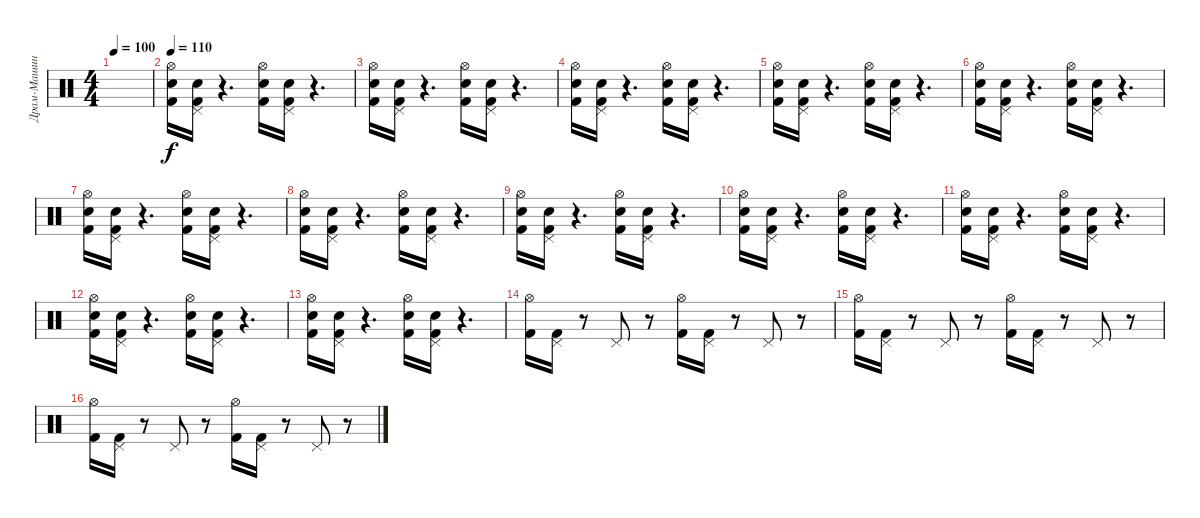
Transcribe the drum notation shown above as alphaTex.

\track ("Драм-Машина" "Драм-Машин") {instrument percussion}
\staff {score}
\articulation defaults
\ts (4 4)
\tempo 100
\clef neutral
\ks c
|
\tempo 110
("Hi-Hat (open)" "Electric Snare (hit)" "Kick (hit) 2").16 ("Pedal Hi-Hat (hit)" "Electric Snare (hit)" "Kick (hit) 2").16 r.4{d} ("Hi-Hat (open)" "Electric Snare (hit)" "Kick (hit) 2").16 ("Pedal Hi-Hat (hit)" "Electric Snare (hit)" "Kick (hit) 2").16 r.4{d} |
("Hi-Hat (open)" "Electric Snare (hit)" "Kick (hit) 2").16 ("Pedal Hi-Hat (hit)" "Electric Snare (hit)" "Kick (hit) 2").16 r.4{d} ("Hi-Hat (open)" "Electric Snare (hit)" "Kick (hit) 2").16 ("Pedal Hi-Hat (hit)" "Electric Snare (hit)" "Kick (hit) 2").16 r.4{d} |
("Hi-Hat (open)" "Electric Snare (hit)" "Kick (hit) 2").16 ("Pedal Hi-Hat (hit)" "Electric Snare (hit)" "Kick (hit) 2").16 r.4{d} ("Hi-Hat (open)" "Electric Snare (hit)" "Kick (hit) 2").16 ("Pedal Hi-Hat (hit)" "Electric Snare (hit)" "Kick (hit) 2").16 r.4{d} |
("Hi-Hat (open)" "Electric Snare (hit)" "Kick (hit) 2").16 ("Pedal Hi-Hat (hit)" "Electric Snare (hit)" "Kick (hit) 2").16 r.4{d} ("Hi-Hat (open)" "Electric Snare (hit)" "Kick (hit) 2").16 ("Pedal Hi-Hat (hit)" "Electric Snare (hit)" "Kick (hit) 2").16 r.4{d} |
("Hi-Hat (open)" "Electric Snare (hit)" "Kick (hit) 2").16 ("Pedal Hi-Hat (hit)" "Electric Snare (hit)" "Kick (hit) 2").16 r.4{d} ("Hi-Hat (open)" "Electric Snare (hit)" "Kick (hit) 2").16 ("Pedal Hi-Hat (hit)" "Electric Snare (hit)" "Kick (hit) 2").16 r.4{d} |
("Hi-Hat (open)" "Electric Snare (hit)" "Kick (hit) 2").16 ("Pedal Hi-Hat (hit)" "Electric Snare (hit)" "Kick (hit) 2").16 r.4{d} ("Hi-Hat (open)" "Electric Snare (hit)" "Kick (hit) 2").16 ("Pedal Hi-Hat (hit)" "Electric Snare (hit)" "Kick (hit) 2").16 r.4{d} |
("Hi-Hat (open)" "Electric Snare (hit)" "Kick (hit) 2").16 ("Pedal Hi-Hat (hit)" "Electric Snare (hit)" "Kick (hit) 2").16 r.4{d} ("Hi-Hat (open)" "Electric Snare (hit)" "Kick (hit) 2").16 ("Pedal Hi-Hat (hit)" "Electric Snare (hit)" "Kick (hit) 2").16 r.4{d} |
("Hi-Hat (open)" "Electric Snare (hit)" "Kick (hit) 2").16 ("Pedal Hi-Hat (hit)" "Electric Snare (hit)" "Kick (hit) 2").16 r.4{d} ("Hi-Hat (open)" "Electric Snare (hit)" "Kick (hit) 2").16 ("Pedal Hi-Hat (hit)" "Electric Snare (hit)" "Kick (hit) 2").16 r.4{d} |
("Hi-Hat (open)" "Electric Snare (hit)" "Kick (hit) 2").16 ("Pedal Hi-Hat (hit)" "Electric Snare (hit)" "Kick (hit) 2").16 r.4{d} ("Hi-Hat (open)" "Electric Snare (hit)" "Kick (hit) 2").16 ("Pedal Hi-Hat (hit)" "Electric Snare (hit)" "Kick (hit) 2").16 r.4{d} |
("Hi-Hat (open)" "Electric Snare (hit)" "Kick (hit) 2").16 ("Pedal Hi-Hat (hit)" "Electric Snare (hit)" "Kick (hit) 2").16 r.4{d} ("Hi-Hat (open)" "Electric Snare (hit)" "Kick (hit) 2").16 ("Pedal Hi-Hat (hit)" "Electric Snare (hit)" "Kick (hit) 2").16 r.4{d} |
("Hi-Hat (open)" "Electric Snare (hit)" "Kick (hit) 2").16 ("Pedal Hi-Hat (hit)" "Electric Snare (hit)" "Kick (hit) 2").16 r.4{d} ("Hi-Hat (open)" "Electric Snare (hit)" "Kick (hit) 2").16 ("Pedal Hi-Hat (hit)" "Electric Snare (hit)" "Kick (hit) 2").16 r.4{d} |
("Hi-Hat (open)" "Electric Snare (hit)" "Kick (hit) 2").16 ("Pedal Hi-Hat (hit)" "Electric Snare (hit)" "Kick (hit) 2").16 r.4{d} ("Hi-Hat (open)" "Electric Snare (hit)" "Kick (hit) 2").16 ("Pedal Hi-Hat (hit)" "Electric Snare (hit)" "Kick (hit) 2").16 r.4{d} |
("Hi-Hat (open)" "Kick (hit) 2").16 ("Pedal Hi-Hat (hit)" "Kick (hit) 2").16 r.8 "Pedal Hi-Hat (hit)".8 r.8 ("Hi-Hat (open)" "Kick (hit) 2").16 ("Pedal Hi-Hat (hit)" "Kick (hit) 2").16 r.8 "Pedal Hi-Hat (hit)".8 r.8 |
("Hi-Hat (open)" "Kick (hit) 2").16 ("Pedal Hi-Hat (hit)" "Kick (hit) 2").16 r.8 "Pedal Hi-Hat (hit)".8 r.8 ("Hi-Hat (open)" "Kick (hit) 2").16 ("Pedal Hi-Hat (hit)" "Kick (hit) 2").16 r.8 "Pedal Hi-Hat (hit)".8 r.8 |
("Hi-Hat (open)" "Kick (hit) 2").16 ("Pedal Hi-Hat (hit)" "Kick (hit) 2").16 r.8 "Pedal Hi-Hat (hit)".8 r.8 ("Hi-Hat (open)" "Kick (hit) 2").16 ("Pedal Hi-Hat (hit)" "Kick (hit) 2").16 r.8 "Pedal Hi-Hat (hit)".8 r.8
